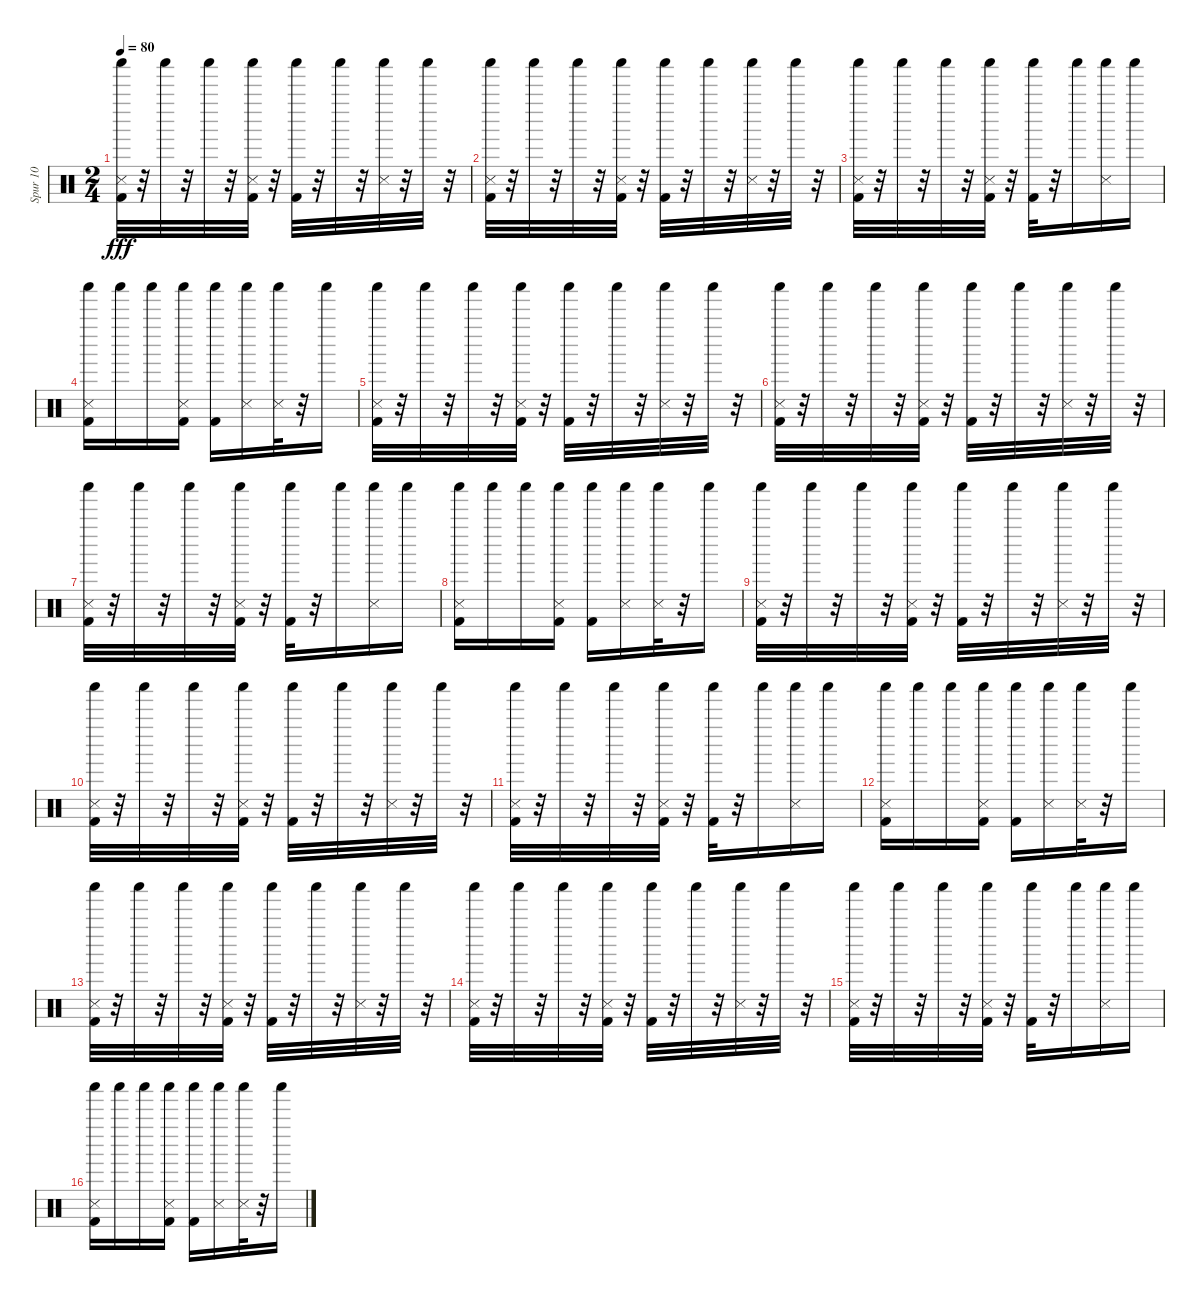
\track ("Spur 10" "Spur 10") {instrument percussion}
\staff {score}
\articulation defaults
\ts (2 4)
\tempo 80
\clef neutral
\ks c
("Shaker (hit)" "Snare (side stick) 3" "Kick (hit) 2").32{dy fff} r.32 "Shaker (hit)".32 r.32 "Shaker (hit)".32 r.32 ("Shaker (hit)" "Snare (side stick) 3" "Kick (hit) 2").32 r.32 ("Shaker (hit)" "Kick (hit) 2").32 r.32 "Shaker (hit)".32 r.32 ("Shaker (hit)" "Snare (side stick) 3").32 r.32 "Shaker (hit)".32 r.32 |
("Shaker (hit)" "Snare (side stick) 3" "Kick (hit) 2").32 r.32 "Shaker (hit)".32 r.32 "Shaker (hit)".32 r.32 ("Shaker (hit)" "Kick (hit) 2" "Snare (side stick) 3").32 r.32 ("Shaker (hit)" "Kick (hit) 2").32 r.32 "Shaker (hit)".32 r.32 ("Shaker (hit)" "Snare (side stick) 3").32 r.32 "Shaker (hit)".32 r.32 |
("Shaker (hit)" "Kick (hit) 2" "Snare (side stick) 3").32 r.32 "Shaker (hit)".32 r.32 "Shaker (hit)".32 r.32 ("Shaker (hit)" "Kick (hit) 2" "Snare (side stick) 3").32 r.32 ("Shaker (hit)" "Kick (hit) 2").32 r.32 "Shaker (hit)".16 ("Shaker (hit)" "Snare (side stick) 3").16 "Shaker (hit)".16 |
("Shaker (hit)" "Snare (side stick) 3" "Kick (hit) 2").16 "Shaker (hit)".16 "Shaker (hit)".16 ("Shaker (hit)" "Kick (hit) 2" "Snare (side stick) 3").16 ("Shaker (hit)" "Kick (hit) 2").16 ("Shaker (hit)" "Snare (side stick) 3").16 ("Shaker (hit)" "Snare (side stick) 3").32 r.32 "Shaker (hit)".16 |
("Shaker (hit)" "Snare (side stick) 3" "Kick (hit) 2").32 r.32 "Shaker (hit)".32 r.32 "Shaker (hit)".32 r.32 ("Shaker (hit)" "Snare (side stick) 3" "Kick (hit) 2").32 r.32 ("Shaker (hit)" "Kick (hit) 2").32 r.32 "Shaker (hit)".32 r.32 ("Shaker (hit)" "Snare (side stick) 3").32 r.32 "Shaker (hit)".32 r.32 |
("Shaker (hit)" "Snare (side stick) 3" "Kick (hit) 2").32 r.32 "Shaker (hit)".32 r.32 "Shaker (hit)".32 r.32 ("Shaker (hit)" "Kick (hit) 2" "Snare (side stick) 3").32 r.32 ("Shaker (hit)" "Kick (hit) 2").32 r.32 "Shaker (hit)".32 r.32 ("Shaker (hit)" "Snare (side stick) 3").32 r.32 "Shaker (hit)".32 r.32 |
("Shaker (hit)" "Kick (hit) 2" "Snare (side stick) 3").32 r.32 "Shaker (hit)".32 r.32 "Shaker (hit)".32 r.32 ("Shaker (hit)" "Kick (hit) 2" "Snare (side stick) 3").32 r.32 ("Shaker (hit)" "Kick (hit) 2").32 r.32 "Shaker (hit)".16 ("Shaker (hit)" "Snare (side stick) 3").16 "Shaker (hit)".16 |
("Shaker (hit)" "Snare (side stick) 3" "Kick (hit) 2").16 "Shaker (hit)".16 "Shaker (hit)".16 ("Shaker (hit)" "Kick (hit) 2" "Snare (side stick) 3").16 ("Shaker (hit)" "Kick (hit) 2").16 ("Shaker (hit)" "Snare (side stick) 3").16 ("Shaker (hit)" "Snare (side stick) 3").32 r.32 "Shaker (hit)".16 |
("Shaker (hit)" "Snare (side stick) 3" "Kick (hit) 2").32 r.32 "Shaker (hit)".32 r.32 "Shaker (hit)".32 r.32 ("Shaker (hit)" "Snare (side stick) 3" "Kick (hit) 2").32 r.32 ("Shaker (hit)" "Kick (hit) 2").32 r.32 "Shaker (hit)".32 r.32 ("Shaker (hit)" "Snare (side stick) 3").32 r.32 "Shaker (hit)".32 r.32 |
("Shaker (hit)" "Snare (side stick) 3" "Kick (hit) 2").32 r.32 "Shaker (hit)".32 r.32 "Shaker (hit)".32 r.32 ("Shaker (hit)" "Kick (hit) 2" "Snare (side stick) 3").32 r.32 ("Shaker (hit)" "Kick (hit) 2").32 r.32 "Shaker (hit)".32 r.32 ("Shaker (hit)" "Snare (side stick) 3").32 r.32 "Shaker (hit)".32 r.32 |
("Shaker (hit)" "Kick (hit) 2" "Snare (side stick) 3").32 r.32 "Shaker (hit)".32 r.32 "Shaker (hit)".32 r.32 ("Shaker (hit)" "Kick (hit) 2" "Snare (side stick) 3").32 r.32 ("Shaker (hit)" "Kick (hit) 2").32 r.32 "Shaker (hit)".16 ("Shaker (hit)" "Snare (side stick) 3").16 "Shaker (hit)".16 |
("Shaker (hit)" "Snare (side stick) 3" "Kick (hit) 2").16 "Shaker (hit)".16 "Shaker (hit)".16 ("Shaker (hit)" "Kick (hit) 2" "Snare (side stick) 3").16 ("Shaker (hit)" "Kick (hit) 2").16 ("Shaker (hit)" "Snare (side stick) 3").16 ("Shaker (hit)" "Snare (side stick) 3").32 r.32 "Shaker (hit)".16 |
("Shaker (hit)" "Snare (side stick) 3" "Kick (hit) 2").32 r.32 "Shaker (hit)".32 r.32 "Shaker (hit)".32 r.32 ("Shaker (hit)" "Snare (side stick) 3" "Kick (hit) 2").32 r.32 ("Shaker (hit)" "Kick (hit) 2").32 r.32 "Shaker (hit)".32 r.32 ("Shaker (hit)" "Snare (side stick) 3").32 r.32 "Shaker (hit)".32 r.32 |
("Shaker (hit)" "Snare (side stick) 3" "Kick (hit) 2").32 r.32 "Shaker (hit)".32 r.32 "Shaker (hit)".32 r.32 ("Shaker (hit)" "Kick (hit) 2" "Snare (side stick) 3").32 r.32 ("Shaker (hit)" "Kick (hit) 2").32 r.32 "Shaker (hit)".32 r.32 ("Shaker (hit)" "Snare (side stick) 3").32 r.32 "Shaker (hit)".32 r.32 |
("Shaker (hit)" "Kick (hit) 2" "Snare (side stick) 3").32 r.32 "Shaker (hit)".32 r.32 "Shaker (hit)".32 r.32 ("Shaker (hit)" "Kick (hit) 2" "Snare (side stick) 3").32 r.32 ("Shaker (hit)" "Kick (hit) 2").32 r.32 "Shaker (hit)".16 ("Shaker (hit)" "Snare (side stick) 3").16 "Shaker (hit)".16 |
("Shaker (hit)" "Snare (side stick) 3" "Kick (hit) 2").16 "Shaker (hit)".16 "Shaker (hit)".16 ("Shaker (hit)" "Kick (hit) 2" "Snare (side stick) 3").16 ("Shaker (hit)" "Kick (hit) 2").16 ("Shaker (hit)" "Snare (side stick) 3").16 ("Shaker (hit)" "Snare (side stick) 3").32 r.32 "Shaker (hit)".16
